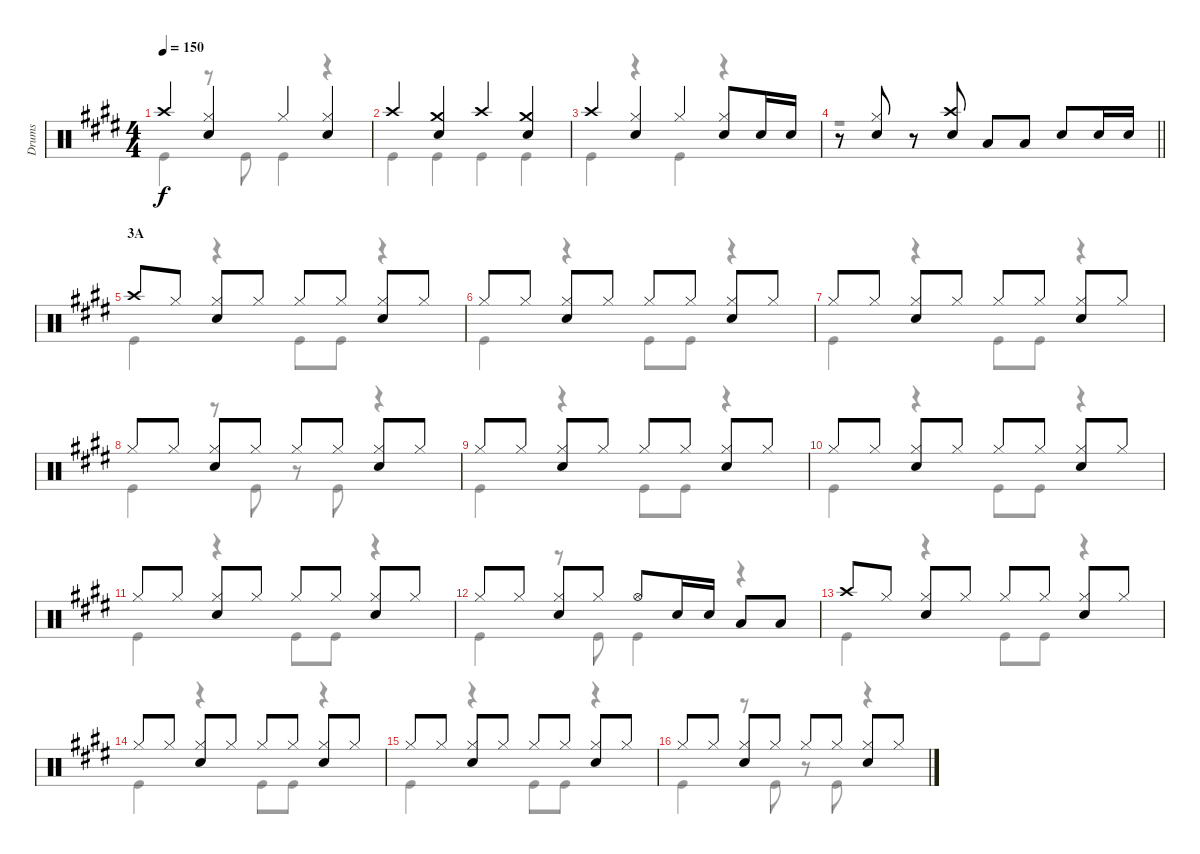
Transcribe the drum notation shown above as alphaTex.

\track ("Drums" "Drums") {instrument percussion}
\staff {score}
\articulation defaults
\voice
\ts (4 4)
\tempo 150
\clef neutral
\ks e "Crash high (hit)".4{dy f}
("Hi-Hat (closed)" "Snare (hit) 2").4 "Hi-Hat (closed)".4 ("Hi-Hat (closed)" "Snare (hit) 2").4 |
"Crash high (hit)".4 ("Crash medium (hit)" "Snare (hit) 2").4 "Crash high (hit)".4 ("Crash medium (hit)" "Snare (hit) 2").4 |
"Crash high (hit)".4 ("Hi-Hat (closed)" "Snare (hit) 2").4 "Hi-Hat (closed)".4 ("Hi-Hat (closed)" "Snare (hit) 2").8 "Snare (hit) 2".16 "Snare (hit) 2".16 |
\barLineRight lightlight
r.8 ("Hi-Hat (closed)" "Snare (hit) 2").8 r.8 ("Crash high (hit)" "Snare (hit) 2").8 "Low Tom (hit)".8 "Low Tom (hit)".8 "Snare (hit) 2".8 "Snare (hit) 2".16 "Snare (hit) 2".16 |
\section ("" "3A")
"Crash high (hit)".8 "Hi-Hat (closed)".8 ("Hi-Hat (closed)" "Snare (hit) 2").8 "Hi-Hat (closed)".8 "Hi-Hat (closed)".8 "Hi-Hat (closed)".8 ("Hi-Hat (closed)" "Snare (hit) 2").8 "Hi-Hat (closed)".8 |
"Hi-Hat (closed)".8 "Hi-Hat (closed)".8 ("Hi-Hat (closed)" "Snare (hit) 2").8 "Hi-Hat (closed)".8 "Hi-Hat (closed)".8 "Hi-Hat (closed)".8 ("Hi-Hat (closed)" "Snare (hit) 2").8 "Hi-Hat (closed)".8 |
"Hi-Hat (closed)".8 "Hi-Hat (closed)".8 ("Hi-Hat (closed)" "Snare (hit) 2").8 "Hi-Hat (closed)".8 "Hi-Hat (closed)".8 "Hi-Hat (closed)".8 ("Hi-Hat (closed)" "Snare (hit) 2").8 "Hi-Hat (closed)".8 |
"Hi-Hat (closed)".8 "Hi-Hat (closed)".8 ("Hi-Hat (closed)" "Snare (hit) 2").8 "Hi-Hat (closed)".8 "Hi-Hat (closed)".8 "Hi-Hat (closed)".8 ("Hi-Hat (closed)" "Snare (hit) 2").8 "Hi-Hat (closed)".8 |
"Hi-Hat (closed)".8 "Hi-Hat (closed)".8 ("Hi-Hat (closed)" "Snare (hit) 2").8 "Hi-Hat (closed)".8 "Hi-Hat (closed)".8 "Hi-Hat (closed)".8 ("Hi-Hat (closed)" "Snare (hit) 2").8 "Hi-Hat (closed)".8 |
"Hi-Hat (closed)".8 "Hi-Hat (closed)".8 ("Hi-Hat (closed)" "Snare (hit) 2").8 "Hi-Hat (closed)".8 "Hi-Hat (closed)".8 "Hi-Hat (closed)".8 ("Hi-Hat (closed)" "Snare (hit) 2").8 "Hi-Hat (closed)".8 |
"Hi-Hat (closed)".8 "Hi-Hat (closed)".8 ("Hi-Hat (closed)" "Snare (hit) 2").8 "Hi-Hat (closed)".8 "Hi-Hat (closed)".8 "Hi-Hat (closed)".8 ("Hi-Hat (closed)" "Snare (hit) 2").8 "Hi-Hat (closed)".8 |
"Hi-Hat (closed)".8 "Hi-Hat (closed)".8 ("Hi-Hat (closed)" "Snare (hit) 2").8 "Hi-Hat (closed)".8 "Hi-Hat (open)".8 "Snare (hit) 2".16 "Snare (hit) 2".16 "Low Tom (hit)".8 "Low Tom (hit)".8 |
"Crash high (hit)".8 "Hi-Hat (closed)".8 ("Hi-Hat (closed)" "Snare (hit) 2").8 "Hi-Hat (closed)".8 "Hi-Hat (closed)".8 "Hi-Hat (closed)".8 ("Hi-Hat (closed)" "Snare (hit) 2").8 "Hi-Hat (closed)".8 |
"Hi-Hat (closed)".8 "Hi-Hat (closed)".8 ("Hi-Hat (closed)" "Snare (hit) 2").8 "Hi-Hat (closed)".8 "Hi-Hat (closed)".8 "Hi-Hat (closed)".8 ("Hi-Hat (closed)" "Snare (hit) 2").8 "Hi-Hat (closed)".8 |
"Hi-Hat (closed)".8 "Hi-Hat (closed)".8 ("Hi-Hat (closed)" "Snare (hit) 2").8 "Hi-Hat (closed)".8 "Hi-Hat (closed)".8 "Hi-Hat (closed)".8 ("Hi-Hat (closed)" "Snare (hit) 2").8 "Hi-Hat (closed)".8 |
"Hi-Hat (closed)".8 "Hi-Hat (closed)".8 ("Hi-Hat (closed)" "Snare (hit) 2").8 "Hi-Hat (closed)".8 "Hi-Hat (closed)".8 "Hi-Hat (closed)".8 ("Hi-Hat (closed)" "Snare (hit) 2").8 "Hi-Hat (closed)".8
\voice
\clef neutral
\ottava regular
\simile none
\ks e "Kick (hit)".4{dy f}
r.8 "Kick (hit)".8 "Kick (hit)".4 r.4 |
"Kick (hit)".4 "Kick (hit)".4 "Kick (hit)".4 "Kick (hit)".4 |
"Kick (hit)".4 r.4 "Kick (hit)".4 r.4 |
\barLineRight lightlight
r.1 |
"Kick (hit)".4 r.4 "Kick (hit)".8 "Kick (hit)".8 r.4 |
"Kick (hit)".4 r.4 "Kick (hit)".8 "Kick (hit)".8 r.4 |
"Kick (hit)".4 r.4 "Kick (hit)".8 "Kick (hit)".8 r.4 |
"Kick (hit)".4 r.8 "Kick (hit)".8 r.8 "Kick (hit)".8 r.4 |
"Kick (hit)".4 r.4 "Kick (hit)".8 "Kick (hit)".8 r.4 |
"Kick (hit)".4 r.4 "Kick (hit)".8 "Kick (hit)".8 r.4 |
"Kick (hit)".4 r.4 "Kick (hit)".8 "Kick (hit)".8 r.4 |
"Kick (hit)".4 r.8 "Kick (hit)".8 "Kick (hit)".4 r.4 |
"Kick (hit)".4 r.4 "Kick (hit)".8 "Kick (hit)".8 r.4 |
"Kick (hit)".4 r.4 "Kick (hit)".8 "Kick (hit)".8 r.4 |
"Kick (hit)".4 r.4 "Kick (hit)".8 "Kick (hit)".8 r.4 |
"Kick (hit)".4 r.8 "Kick (hit)".8 r.8 "Kick (hit)".8 r.4
